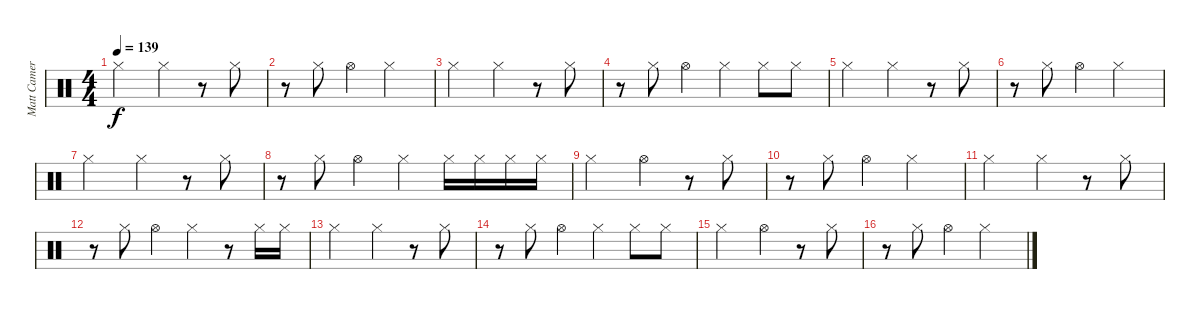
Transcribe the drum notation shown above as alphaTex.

\track ("Matt Cameron" "Matt Camer") {instrument percussion}
\staff {score}
\articulation defaults
\ts (4 4)
\tempo 139
\clef neutral
\ks c "Hi-Hat (closed)".2{dy f} "Hi-Hat (closed)".4
r.8 "Hi-Hat (closed)".8 |
r.8 "Hi-Hat (closed)".8 "Hi-Hat (open)".4 "Hi-Hat (closed)".2 |
"Hi-Hat (closed)".2 "Hi-Hat (closed)".4 r.8 "Hi-Hat (closed)".8 |
r.8 "Hi-Hat (closed)".8 "Hi-Hat (open)".4 "Hi-Hat (closed)".4 "Hi-Hat (closed)".8 "Hi-Hat (closed)".8 |
"Hi-Hat (closed)".2 "Hi-Hat (closed)".4 r.8 "Hi-Hat (closed)".8 |
r.8 "Hi-Hat (closed)".8 "Hi-Hat (open)".4 "Hi-Hat (closed)".2 |
"Hi-Hat (closed)".2 "Hi-Hat (closed)".4 r.8 "Hi-Hat (closed)".8 |
r.8 "Hi-Hat (closed)".8 "Hi-Hat (open)".4 "Hi-Hat (closed)".4 "Hi-Hat (closed)".16 "Hi-Hat (closed)".16 "Hi-Hat (closed)".16 "Hi-Hat (closed)".16 |
"Hi-Hat (closed)".2 "Hi-Hat (open)".4 r.8 "Hi-Hat (closed)".8 |
r.8 "Hi-Hat (closed)".8 "Hi-Hat (open)".4 "Hi-Hat (closed)".2 |
"Hi-Hat (closed)".2 "Hi-Hat (closed)".4 r.8 "Hi-Hat (closed)".8 |
r.8 "Hi-Hat (closed)".8 "Hi-Hat (open)".4 "Hi-Hat (closed)".4 r.8 "Hi-Hat (closed)".16 "Hi-Hat (closed)".16 |
"Hi-Hat (closed)".2 "Hi-Hat (closed)".4 r.8 "Hi-Hat (closed)".8 |
r.8 "Hi-Hat (closed)".8 "Hi-Hat (open)".4 "Hi-Hat (closed)".4 "Hi-Hat (closed)".8 "Hi-Hat (closed)".8 |
"Hi-Hat (closed)".2 "Hi-Hat (open)".4 r.8 "Hi-Hat (closed)".8 |
r.8 "Hi-Hat (closed)".8 "Hi-Hat (open)".4 "Hi-Hat (closed)".2
